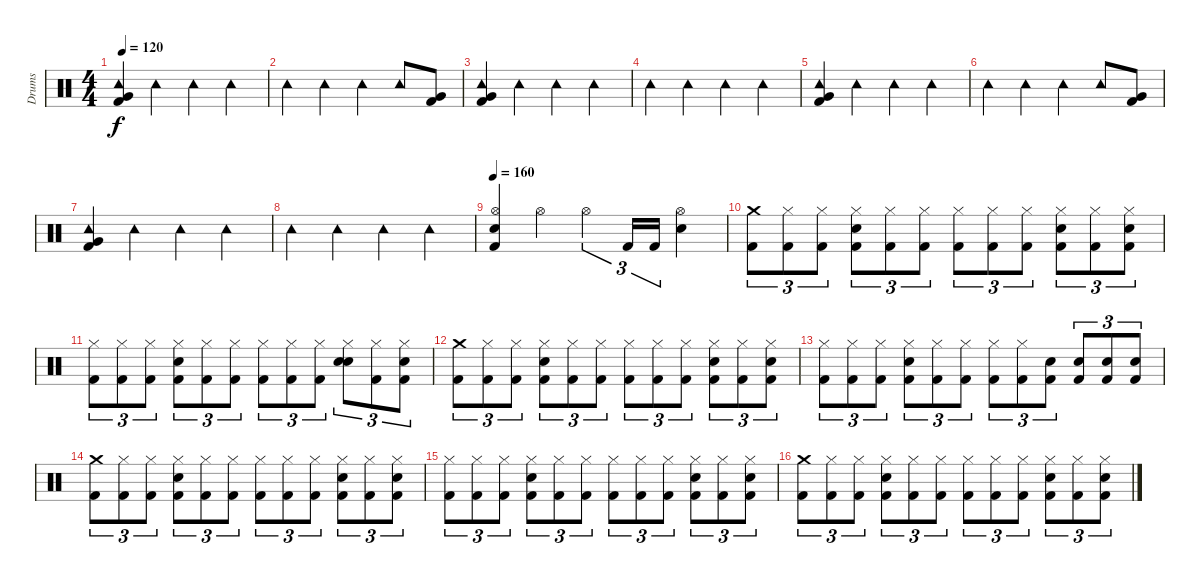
\track ("Drums" "Drums") {instrument percussion}
\staff {score}
\articulation defaults
\ts (4 4)
\tempo 120
\clef neutral
\ks c
("Tambourine (hit)" "Very Low Tom (hit)" "Kick (hit) 2").4{dy f} "Tambourine (hit)".4 "Tambourine (hit)".4 "Tambourine (hit)".4 |
"Tambourine (hit)".4 "Tambourine (hit)".4 "Tambourine (hit)".4 "Tambourine (hit)".8 ("Very Low Tom (hit)" "Kick (hit) 2").8 |
("Tambourine (hit)" "Very Low Tom (hit)" "Kick (hit) 2").4 "Tambourine (hit)".4 "Tambourine (hit)".4 "Tambourine (hit)".4 |
"Tambourine (hit)".4 "Tambourine (hit)".4 "Tambourine (hit)".4 "Tambourine (hit)".4 |
("Tambourine (hit)" "Very Low Tom (hit)" "Kick (hit) 2").4 "Tambourine (hit)".4 "Tambourine (hit)".4 "Tambourine (hit)".4 |
"Tambourine (hit)".4 "Tambourine (hit)".4 "Tambourine (hit)".4 "Tambourine (hit)".8 ("Very Low Tom (hit)" "Kick (hit) 2").8 |
("Tambourine (hit)" "Very Low Tom (hit)" "Kick (hit) 2").4 "Tambourine (hit)".4 "Tambourine (hit)".4 "Tambourine (hit)".4 |
"Tambourine (hit)".4 "Tambourine (hit)".4 "Tambourine (hit)".4 "Tambourine (hit)".4 |
\tempo 160
("Hi-Hat (open)" "Electric Snare (hit)" "Kick (hit) 2").4 "Hi-Hat (open)".4 "Hi-Hat (open)".4{tu (3 2)} "Kick (hit) 2".16{tu (3 2)} "Kick (hit) 2".16{tu (3 2)} ("Hi-Hat (open)" "Electric Snare (hit)").4 |
("Crash medium (hit)" "Kick (hit) 2").8{tu (3 2)} ("Hi-Hat (closed)" "Kick (hit) 2").8{tu (3 2)} ("Hi-Hat (closed)" "Kick (hit) 2").8{tu (3 2)} ("Hi-Hat (closed)" "Electric Snare (hit)" "Kick (hit) 2").8{tu (3 2)} ("Hi-Hat (closed)" "Kick (hit) 2").8{tu (3 2)} ("Hi-Hat (closed)" "Kick (hit) 2").8{tu (3 2)} ("Hi-Hat (closed)" "Kick (hit) 2").8{tu (3 2)} ("Hi-Hat (closed)" "Kick (hit) 2").8{tu (3 2)} ("Hi-Hat (closed)" "Kick (hit) 2").8{tu (3 2)} ("Hi-Hat (closed)" "Electric Snare (hit)" "Kick (hit) 2").8{tu (3 2)} ("Hi-Hat (closed)" "Kick (hit) 2").8{tu (3 2)} ("Hi-Hat (closed)" "Electric Snare (hit)" "Kick (hit) 2").8{tu (3 2)} |
("Hi-Hat (closed)" "Kick (hit) 2").8{tu (3 2)} ("Hi-Hat (closed)" "Kick (hit) 2").8{tu (3 2)} ("Hi-Hat (closed)" "Kick (hit) 2").8{tu (3 2)} ("Hi-Hat (closed)" "Electric Snare (hit)" "Kick (hit) 2").8{tu (3 2)} ("Hi-Hat (closed)" "Kick (hit) 2").8{tu (3 2)} ("Hi-Hat (closed)" "Kick (hit) 2").8{tu (3 2)} ("Hi-Hat (closed)" "Kick (hit) 2").8{tu (3 2)} ("Hi-Hat (closed)" "Kick (hit) 2").8{tu (3 2)} ("Hi-Hat (closed)" "Kick (hit) 2").8{tu (3 2)} ("Hi-Hat (closed)" "Electric Snare (hit)" "Snare (hit)").8{tu (3 2)} ("Hi-Hat (closed)" "Kick (hit) 2").8{tu (3 2)} ("Hi-Hat (closed)" "Electric Snare (hit)" "Kick (hit) 2").8{tu (3 2)} |
("Crash medium (hit)" "Kick (hit) 2").8{tu (3 2)} ("Hi-Hat (closed)" "Kick (hit) 2").8{tu (3 2)} ("Hi-Hat (closed)" "Kick (hit) 2").8{tu (3 2)} ("Hi-Hat (closed)" "Electric Snare (hit)" "Kick (hit) 2").8{tu (3 2)} ("Hi-Hat (closed)" "Kick (hit) 2").8{tu (3 2)} ("Hi-Hat (closed)" "Kick (hit) 2").8{tu (3 2)} ("Hi-Hat (closed)" "Kick (hit) 2").8{tu (3 2)} ("Hi-Hat (closed)" "Kick (hit) 2").8{tu (3 2)} ("Hi-Hat (closed)" "Kick (hit) 2").8{tu (3 2)} ("Hi-Hat (closed)" "Electric Snare (hit)" "Kick (hit) 2").8{tu (3 2)} ("Hi-Hat (closed)" "Kick (hit) 2").8{tu (3 2)} ("Hi-Hat (closed)" "Electric Snare (hit)" "Kick (hit) 2").8{tu (3 2)} |
("Hi-Hat (closed)" "Kick (hit) 2").8{tu (3 2)} ("Hi-Hat (closed)" "Kick (hit) 2").8{tu (3 2)} ("Hi-Hat (closed)" "Kick (hit) 2").8{tu (3 2)} ("Hi-Hat (closed)" "Electric Snare (hit)" "Kick (hit) 2").8{tu (3 2)} ("Hi-Hat (closed)" "Kick (hit) 2").8{tu (3 2)} ("Hi-Hat (closed)" "Kick (hit) 2").8{tu (3 2)} ("Hi-Hat (closed)" "Kick (hit) 2").8{tu (3 2)} ("Hi-Hat (closed)" "Kick (hit) 2").8{tu (3 2)} ("Electric Snare (hit)" "Kick (hit) 2").8{tu (3 2)} ("Electric Snare (hit)" "Kick (hit) 2").8{tu (3 2)} ("Electric Snare (hit)" "Kick (hit) 2").8{tu (3 2)} ("Electric Snare (hit)" "Kick (hit) 2").8{tu (3 2)} |
("Crash medium (hit)" "Kick (hit) 2").8{tu (3 2)} ("Hi-Hat (closed)" "Kick (hit) 2").8{tu (3 2)} ("Hi-Hat (closed)" "Kick (hit) 2").8{tu (3 2)} ("Hi-Hat (closed)" "Electric Snare (hit)" "Kick (hit) 2").8{tu (3 2)} ("Hi-Hat (closed)" "Kick (hit) 2").8{tu (3 2)} ("Hi-Hat (closed)" "Kick (hit) 2").8{tu (3 2)} ("Hi-Hat (closed)" "Kick (hit) 2").8{tu (3 2)} ("Hi-Hat (closed)" "Kick (hit) 2").8{tu (3 2)} ("Hi-Hat (closed)" "Kick (hit) 2").8{tu (3 2)} ("Hi-Hat (closed)" "Electric Snare (hit)" "Kick (hit) 2").8{tu (3 2)} ("Hi-Hat (closed)" "Kick (hit) 2").8{tu (3 2)} ("Hi-Hat (closed)" "Electric Snare (hit)" "Kick (hit) 2").8{tu (3 2)} |
("Hi-Hat (closed)" "Kick (hit) 2").8{tu (3 2)} ("Hi-Hat (closed)" "Kick (hit) 2").8{tu (3 2)} ("Hi-Hat (closed)" "Kick (hit) 2").8{tu (3 2)} ("Hi-Hat (closed)" "Electric Snare (hit)" "Kick (hit) 2").8{tu (3 2)} ("Hi-Hat (closed)" "Kick (hit) 2").8{tu (3 2)} ("Hi-Hat (closed)" "Kick (hit) 2").8{tu (3 2)} ("Hi-Hat (closed)" "Kick (hit) 2").8{tu (3 2)} ("Hi-Hat (closed)" "Kick (hit) 2").8{tu (3 2)} ("Hi-Hat (closed)" "Kick (hit) 2").8{tu (3 2)} ("Hi-Hat (closed)" "Electric Snare (hit)" "Kick (hit) 2").8{tu (3 2)} ("Hi-Hat (closed)" "Kick (hit) 2").8{tu (3 2)} ("Hi-Hat (closed)" "Electric Snare (hit)" "Kick (hit) 2").8{tu (3 2)} |
("Crash medium (hit)" "Kick (hit) 2").8{tu (3 2)} ("Hi-Hat (closed)" "Kick (hit) 2").8{tu (3 2)} ("Hi-Hat (closed)" "Kick (hit) 2").8{tu (3 2)} ("Hi-Hat (closed)" "Electric Snare (hit)" "Kick (hit) 2").8{tu (3 2)} ("Hi-Hat (closed)" "Kick (hit) 2").8{tu (3 2)} ("Hi-Hat (closed)" "Kick (hit) 2").8{tu (3 2)} ("Hi-Hat (closed)" "Kick (hit) 2").8{tu (3 2)} ("Hi-Hat (closed)" "Kick (hit) 2").8{tu (3 2)} ("Hi-Hat (closed)" "Kick (hit) 2").8{tu (3 2)} ("Hi-Hat (closed)" "Electric Snare (hit)" "Kick (hit) 2").8{tu (3 2)} ("Hi-Hat (closed)" "Kick (hit) 2").8{tu (3 2)} ("Hi-Hat (closed)" "Electric Snare (hit)" "Kick (hit) 2").8{tu (3 2)}
